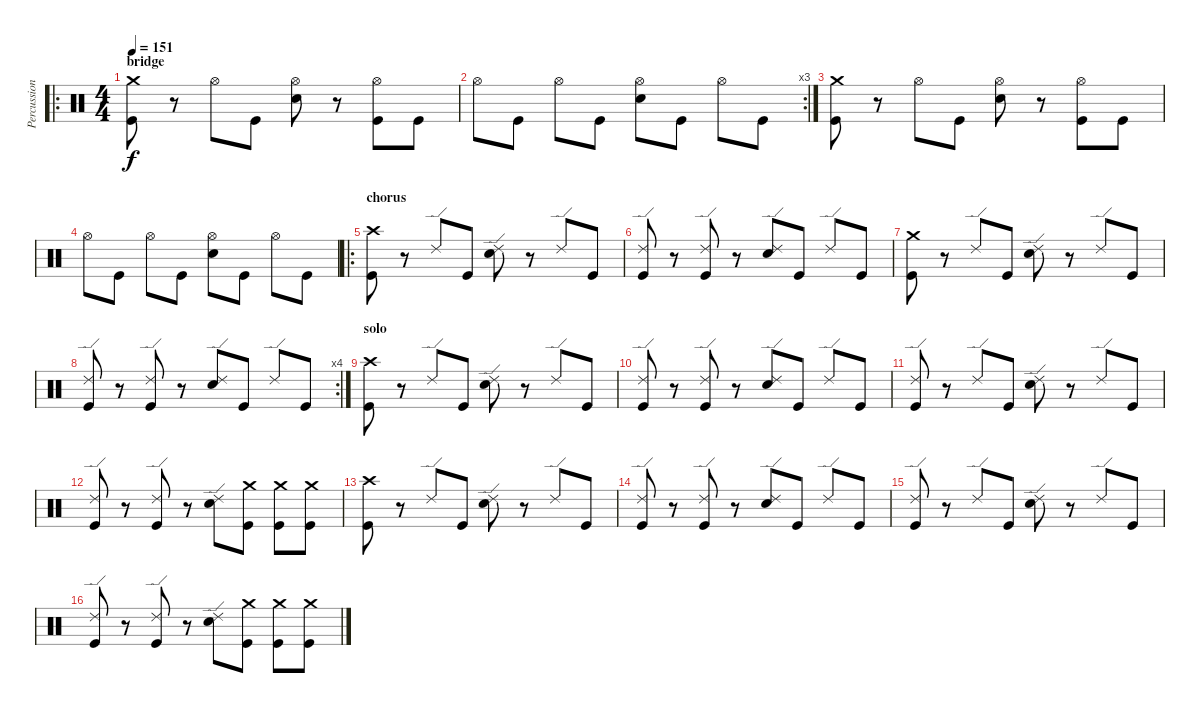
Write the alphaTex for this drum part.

\track ("Percussion" "Percussion") {instrument percussion}
\staff {score}
\articulation defaults
\ro
\ts (4 4)
\section ("" "bridge")
\tempo 151
\clef neutral
\ks c
("Crash medium (hit)" "Kick (hit)").8{dy f} r.8 "Hi-Hat (open)".8 "Kick (hit)".8 ("Hi-Hat (open)" "Electric Snare (hit)").8 r.8 ("Hi-Hat (open)" "Kick (hit)").8 "Kick (hit)".8 |
\rc 3 "Hi-Hat (open)".8 "Kick (hit)".8 "Hi-Hat (open)".8 "Kick (hit)".8
("Hi-Hat (open)" "Electric Snare (hit)").8 "Kick (hit)".8 "Hi-Hat (open)".8 "Kick (hit)".8 |
("Crash medium (hit)" "Kick (hit)").8 r.8 "Hi-Hat (open)".8 "Kick (hit)".8 ("Hi-Hat (open)" "Electric Snare (hit)").8 r.8 ("Hi-Hat (open)" "Kick (hit)").8 "Kick (hit)".8 |
"Hi-Hat (open)".8 "Kick (hit)".8 "Hi-Hat (open)".8 "Kick (hit)".8 ("Hi-Hat (open)" "Electric Snare (hit)").8 "Kick (hit)".8 "Hi-Hat (open)".8 "Kick (hit)".8 |
\ro
\section ("" "chorus")
("Crash high (hit)" "Kick (hit)").8 r.8 "Ride (edge) 2".8 "Kick (hit)".8 ("Ride (edge) 2" "Electric Snare (hit)").8 r.8 "Ride (edge) 2".8 "Kick (hit)".8 |
("Ride (edge) 2" "Kick (hit)").8 r.8 ("Ride (edge) 2" "Kick (hit)").8 r.8 ("Ride (edge) 2" "Electric Snare (hit)").8 "Kick (hit)".8 "Ride (edge) 2".8 "Kick (hit)".8 |
("Crash medium (hit)" "Kick (hit)").8 r.8 "Ride (edge) 2".8 "Kick (hit)".8 ("Ride (edge) 2" "Electric Snare (hit)").8 r.8 "Ride (edge) 2".8 "Kick (hit)".8 |
\rc 4
("Ride (edge) 2" "Kick (hit)").8 r.8 ("Ride (edge) 2" "Kick (hit)").8 r.8 ("Ride (edge) 2" "Electric Snare (hit)").8 "Kick (hit)".8 "Ride (edge) 2".8 "Kick (hit)".8 |
\section ("" "solo")
("Crash high (hit)" "Kick (hit)").8 r.8 "Ride (edge) 2".8 "Kick (hit)".8 ("Ride (edge) 2" "Electric Snare (hit)").8 r.8 "Ride (edge) 2".8 "Kick (hit)".8 |
("Ride (edge) 2" "Kick (hit)").8 r.8 ("Ride (edge) 2" "Kick (hit)").8 r.8 ("Ride (edge) 2" "Electric Snare (hit)").8 "Kick (hit)".8 "Ride (edge) 2".8 "Kick (hit)".8 |
("Ride (edge) 2" "Kick (hit)").8 r.8 "Ride (edge) 2".8 "Kick (hit)".8 ("Ride (edge) 2" "Electric Snare (hit)").8 r.8 "Ride (edge) 2".8 "Kick (hit)".8 |
("Ride (edge) 2" "Kick (hit)").8 r.8 ("Ride (edge) 2" "Kick (hit)").8 r.8 ("Ride (edge) 2" "Electric Snare (hit)").8 ("Crash medium (hit)" "Kick (hit)").8 ("Crash medium (hit)" "Kick (hit)").8 ("Crash medium (hit)" "Kick (hit)").8 |
("Crash high (hit)" "Kick (hit)").8 r.8 "Ride (edge) 2".8 "Kick (hit)".8 ("Ride (edge) 2" "Electric Snare (hit)").8 r.8 "Ride (edge) 2".8 "Kick (hit)".8 |
("Ride (edge) 2" "Kick (hit)").8 r.8 ("Ride (edge) 2" "Kick (hit)").8 r.8 ("Ride (edge) 2" "Electric Snare (hit)").8 "Kick (hit)".8 "Ride (edge) 2".8 "Kick (hit)".8 |
("Ride (edge) 2" "Kick (hit)").8 r.8 "Ride (edge) 2".8 "Kick (hit)".8 ("Ride (edge) 2" "Electric Snare (hit)").8 r.8 "Ride (edge) 2".8 "Kick (hit)".8 |
("Ride (edge) 2" "Kick (hit)").8 r.8 ("Ride (edge) 2" "Kick (hit)").8 r.8 ("Ride (edge) 2" "Electric Snare (hit)").8 ("Crash medium (hit)" "Kick (hit)").8 ("Crash medium (hit)" "Kick (hit)").8 ("Crash medium (hit)" "Kick (hit)").8
